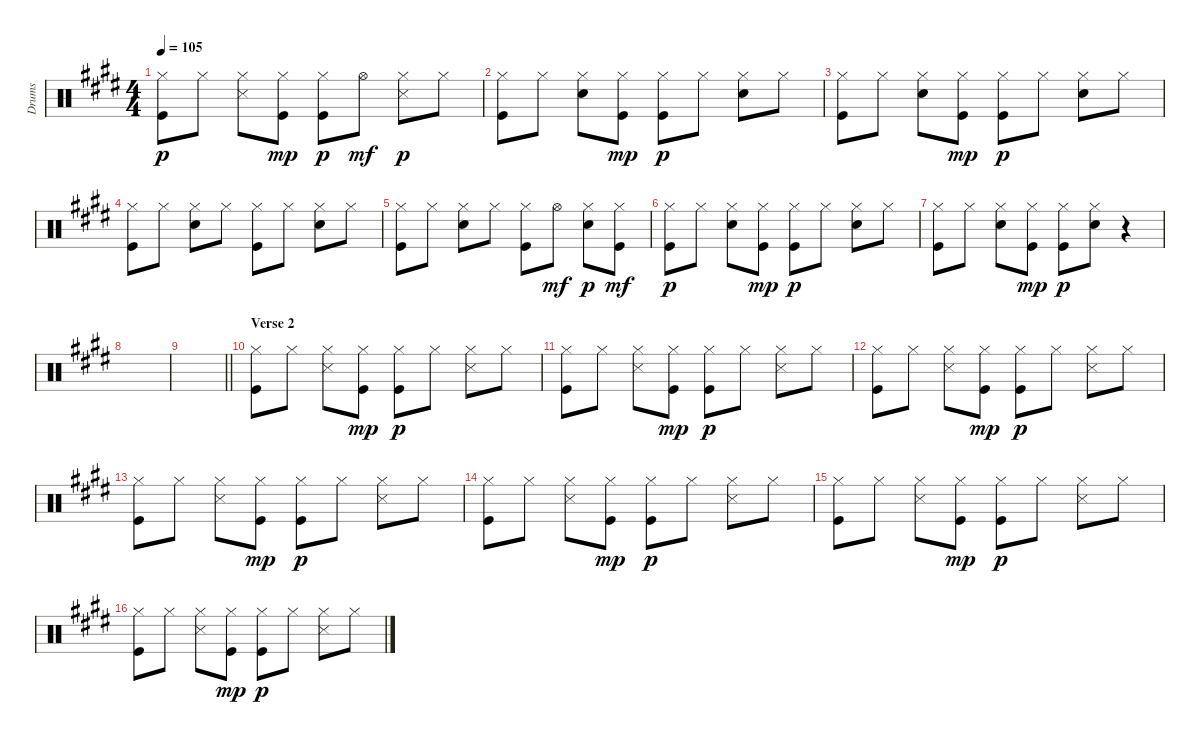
\track ("Drums" "Drums") {instrument percussion}
\staff {score}
\articulation defaults
\ts (4 4)
\tempo 105
\clef neutral
\ks e
("Hi-Hat (closed)" "Kick (hit)").8{dy p} "Hi-Hat (closed)".8 ("Snare (side stick) 3" "Hi-Hat (closed)").8 ("Hi-Hat (closed)" "Kick (hit)").8{dy mp} ("Hi-Hat (closed)" "Kick (hit)").8{dy p} "Hi-Hat (open)".8{dy mf} ("Snare (side stick) 3" "Hi-Hat (closed)").8{dy p} "Hi-Hat (closed)".8 |
("Hi-Hat (closed)" "Kick (hit)").8 "Hi-Hat (closed)".8 ("Snare (hit) 2" "Hi-Hat (closed)").8 ("Hi-Hat (closed)" "Kick (hit)").8{dy mp} ("Hi-Hat (closed)" "Kick (hit)").8{dy p} "Hi-Hat (closed)".8 ("Snare (hit) 2" "Hi-Hat (closed)").8 "Hi-Hat (closed)".8 |
("Hi-Hat (closed)" "Kick (hit)").8 "Hi-Hat (closed)".8 ("Snare (hit) 2" "Hi-Hat (closed)").8 ("Hi-Hat (closed)" "Kick (hit)").8{dy mp} ("Hi-Hat (closed)" "Kick (hit)").8{dy p} "Hi-Hat (closed)".8 ("Snare (hit) 2" "Hi-Hat (closed)").8 "Hi-Hat (closed)".8 |
("Hi-Hat (closed)" "Kick (hit)").8 "Hi-Hat (closed)".8 ("Snare (hit) 2" "Hi-Hat (closed)").8 "Hi-Hat (closed)".8 ("Hi-Hat (closed)" "Kick (hit)").8 "Hi-Hat (closed)".8 ("Snare (hit) 2" "Hi-Hat (closed)").8 "Hi-Hat (closed)".8 |
("Hi-Hat (closed)" "Kick (hit)").8 "Hi-Hat (closed)".8 ("Snare (hit) 2" "Hi-Hat (closed)").8 "Hi-Hat (closed)".8 ("Hi-Hat (closed)" "Kick (hit)").8 "Hi-Hat (open)".8{dy mf} ("Snare (hit) 2" "Hi-Hat (closed)").8{dy p} ("Hi-Hat (closed)" "Kick (hit)").8{dy mf} |
("Hi-Hat (closed)" "Kick (hit)").8{dy p} "Hi-Hat (closed)".8 ("Snare (hit) 2" "Hi-Hat (closed)").8 ("Hi-Hat (closed)" "Kick (hit)").8{dy mp} ("Hi-Hat (closed)" "Kick (hit)").8{dy p} "Hi-Hat (closed)".8 ("Snare (hit) 2" "Hi-Hat (closed)").8 "Hi-Hat (closed)".8 |
("Hi-Hat (closed)" "Kick (hit)").8 "Hi-Hat (closed)".8 ("Snare (hit) 2" "Hi-Hat (closed)").8 ("Hi-Hat (closed)" "Kick (hit)").8{dy mp} ("Hi-Hat (closed)" "Kick (hit)").8{dy p} ("Snare (hit) 2" "Hi-Hat (closed)").8 r.4 |
|
\barLineRight lightlight
|
\section ("" "Verse 2")
("Hi-Hat (closed)" "Kick (hit)").8 "Hi-Hat (closed)".8 ("Snare (side stick) 3" "Hi-Hat (closed)").8 ("Hi-Hat (closed)" "Kick (hit)").8{dy mp} ("Hi-Hat (closed)" "Kick (hit)").8{dy p} "Hi-Hat (closed)".8 ("Snare (side stick) 3" "Hi-Hat (closed)").8 "Hi-Hat (closed)".8 |
("Hi-Hat (closed)" "Kick (hit)").8 "Hi-Hat (closed)".8 ("Snare (side stick) 3" "Hi-Hat (closed)").8 ("Hi-Hat (closed)" "Kick (hit)").8{dy mp} ("Hi-Hat (closed)" "Kick (hit)").8{dy p} "Hi-Hat (closed)".8 ("Snare (side stick) 3" "Hi-Hat (closed)").8 "Hi-Hat (closed)".8 |
("Hi-Hat (closed)" "Kick (hit)").8 "Hi-Hat (closed)".8 ("Snare (side stick) 3" "Hi-Hat (closed)").8 ("Hi-Hat (closed)" "Kick (hit)").8{dy mp} ("Hi-Hat (closed)" "Kick (hit)").8{dy p} "Hi-Hat (closed)".8 ("Snare (side stick) 3" "Hi-Hat (closed)").8 "Hi-Hat (closed)".8 |
("Hi-Hat (closed)" "Kick (hit)").8 "Hi-Hat (closed)".8 ("Snare (side stick) 3" "Hi-Hat (closed)").8 ("Hi-Hat (closed)" "Kick (hit)").8{dy mp} ("Hi-Hat (closed)" "Kick (hit)").8{dy p} "Hi-Hat (closed)".8 ("Snare (side stick) 3" "Hi-Hat (closed)").8 "Hi-Hat (closed)".8 |
("Hi-Hat (closed)" "Kick (hit)").8 "Hi-Hat (closed)".8 ("Snare (side stick) 3" "Hi-Hat (closed)").8 ("Hi-Hat (closed)" "Kick (hit)").8{dy mp} ("Hi-Hat (closed)" "Kick (hit)").8{dy p} "Hi-Hat (closed)".8 ("Snare (side stick) 3" "Hi-Hat (closed)").8 "Hi-Hat (closed)".8 |
("Hi-Hat (closed)" "Kick (hit)").8 "Hi-Hat (closed)".8 ("Snare (side stick) 3" "Hi-Hat (closed)").8 ("Hi-Hat (closed)" "Kick (hit)").8{dy mp} ("Hi-Hat (closed)" "Kick (hit)").8{dy p} "Hi-Hat (closed)".8 ("Snare (side stick) 3" "Hi-Hat (closed)").8 "Hi-Hat (closed)".8 |
("Hi-Hat (closed)" "Kick (hit)").8 "Hi-Hat (closed)".8 ("Snare (side stick) 3" "Hi-Hat (closed)").8 ("Hi-Hat (closed)" "Kick (hit)").8{dy mp} ("Hi-Hat (closed)" "Kick (hit)").8{dy p} "Hi-Hat (closed)".8 ("Snare (side stick) 3" "Hi-Hat (closed)").8 "Hi-Hat (closed)".8
